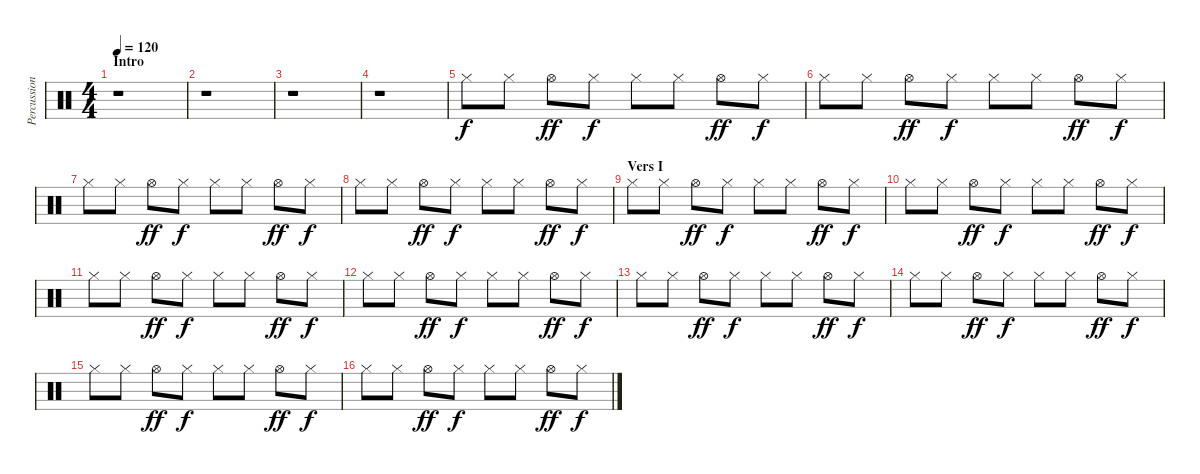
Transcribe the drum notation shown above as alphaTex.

\track ("Percussion" "Percussion") {instrument percussion}
\staff {score}
\articulation defaults
\ts (4 4)
\section ("" "Intro")
\tempo 120
\clef neutral
\ks c
r.1{dy f} |
r.1 |
r.1 |
r.1 |
"Hi-Hat (closed)".8 "Hi-Hat (closed)".8 "Hi-Hat (open)".8{dy ff} "Hi-Hat (closed)".8{dy f} "Hi-Hat (closed)".8 "Hi-Hat (closed)".8 "Hi-Hat (open)".8{dy ff} "Hi-Hat (closed)".8{dy f} |
"Hi-Hat (closed)".8 "Hi-Hat (closed)".8 "Hi-Hat (open)".8{dy ff} "Hi-Hat (closed)".8{dy f} "Hi-Hat (closed)".8 "Hi-Hat (closed)".8 "Hi-Hat (open)".8{dy ff} "Hi-Hat (closed)".8{dy f} |
"Hi-Hat (closed)".8 "Hi-Hat (closed)".8 "Hi-Hat (open)".8{dy ff} "Hi-Hat (closed)".8{dy f} "Hi-Hat (closed)".8 "Hi-Hat (closed)".8 "Hi-Hat (open)".8{dy ff} "Hi-Hat (closed)".8{dy f} |
"Hi-Hat (closed)".8 "Hi-Hat (closed)".8 "Hi-Hat (open)".8{dy ff} "Hi-Hat (closed)".8{dy f} "Hi-Hat (closed)".8 "Hi-Hat (closed)".8 "Hi-Hat (open)".8{dy ff} "Hi-Hat (closed)".8{dy f} |
\section ("" "Vers I")
"Hi-Hat (closed)".8 "Hi-Hat (closed)".8 "Hi-Hat (open)".8{dy ff} "Hi-Hat (closed)".8{dy f} "Hi-Hat (closed)".8 "Hi-Hat (closed)".8 "Hi-Hat (open)".8{dy ff} "Hi-Hat (closed)".8{dy f} |
"Hi-Hat (closed)".8 "Hi-Hat (closed)".8 "Hi-Hat (open)".8{dy ff} "Hi-Hat (closed)".8{dy f} "Hi-Hat (closed)".8 "Hi-Hat (closed)".8 "Hi-Hat (open)".8{dy ff} "Hi-Hat (closed)".8{dy f} |
"Hi-Hat (closed)".8 "Hi-Hat (closed)".8 "Hi-Hat (open)".8{dy ff} "Hi-Hat (closed)".8{dy f} "Hi-Hat (closed)".8 "Hi-Hat (closed)".8 "Hi-Hat (open)".8{dy ff} "Hi-Hat (closed)".8{dy f} |
"Hi-Hat (closed)".8 "Hi-Hat (closed)".8 "Hi-Hat (open)".8{dy ff} "Hi-Hat (closed)".8{dy f} "Hi-Hat (closed)".8 "Hi-Hat (closed)".8 "Hi-Hat (open)".8{dy ff} "Hi-Hat (closed)".8{dy f} |
"Hi-Hat (closed)".8 "Hi-Hat (closed)".8 "Hi-Hat (open)".8{dy ff} "Hi-Hat (closed)".8{dy f} "Hi-Hat (closed)".8 "Hi-Hat (closed)".8 "Hi-Hat (open)".8{dy ff} "Hi-Hat (closed)".8{dy f} |
"Hi-Hat (closed)".8 "Hi-Hat (closed)".8 "Hi-Hat (open)".8{dy ff} "Hi-Hat (closed)".8{dy f} "Hi-Hat (closed)".8 "Hi-Hat (closed)".8 "Hi-Hat (open)".8{dy ff} "Hi-Hat (closed)".8{dy f} |
"Hi-Hat (closed)".8 "Hi-Hat (closed)".8 "Hi-Hat (open)".8{dy ff} "Hi-Hat (closed)".8{dy f} "Hi-Hat (closed)".8 "Hi-Hat (closed)".8 "Hi-Hat (open)".8{dy ff} "Hi-Hat (closed)".8{dy f} |
"Hi-Hat (closed)".8 "Hi-Hat (closed)".8 "Hi-Hat (open)".8{dy ff} "Hi-Hat (closed)".8{dy f} "Hi-Hat (closed)".8 "Hi-Hat (closed)".8 "Hi-Hat (open)".8{dy ff} "Hi-Hat (closed)".8{dy f}
